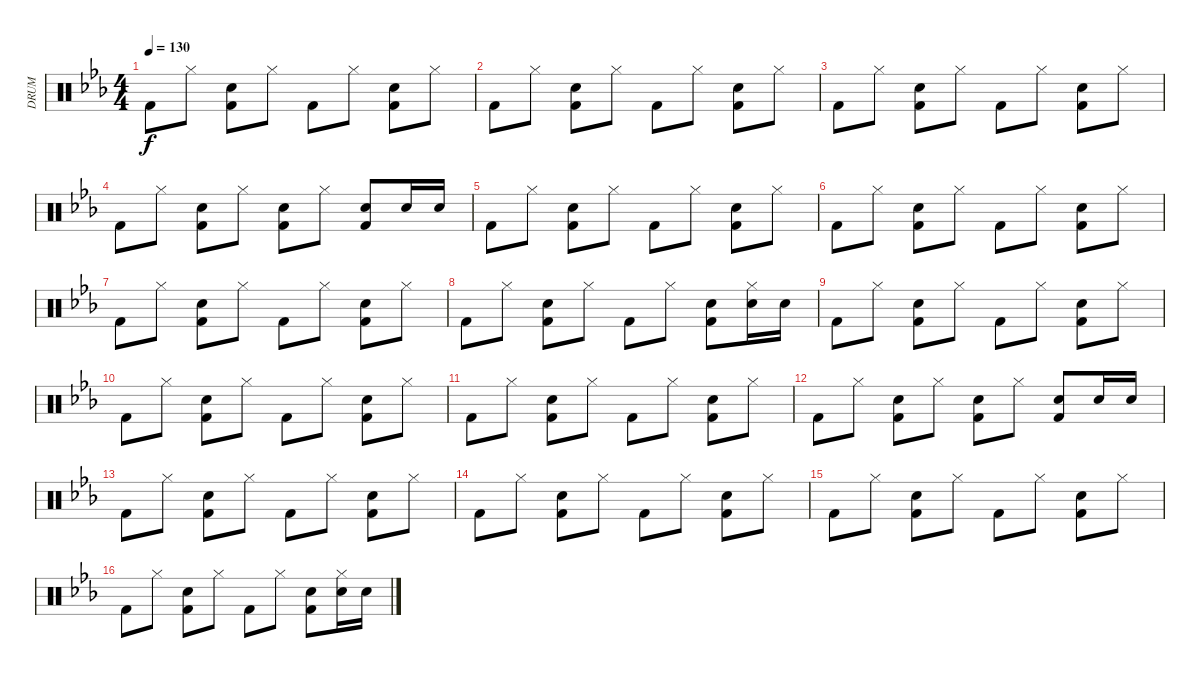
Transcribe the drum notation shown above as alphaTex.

\track ("DRUM" "DRUM") {instrument percussion}
\staff {score}
\articulation defaults
\ts (4 4)
\tempo 130
\clef neutral
\ks eb "Kick (hit) 2".8{dy f} "Hi-Hat (closed)".8
("Hand Clap (hit)" "Kick (hit) 2").8 "Hi-Hat (closed)".8 "Kick (hit) 2".8 "Hi-Hat (closed)".8 ("Hand Clap (hit)" "Kick (hit) 2").8 "Hi-Hat (closed)".8 |
"Kick (hit) 2".8 "Hi-Hat (closed)".8 ("Hand Clap (hit)" "Kick (hit) 2").8 "Hi-Hat (closed)".8 "Kick (hit) 2".8 "Hi-Hat (closed)".8 ("Hand Clap (hit)" "Kick (hit) 2").8 "Hi-Hat (closed)".8 |
"Kick (hit) 2".8 "Hi-Hat (closed)".8 ("Hand Clap (hit)" "Kick (hit) 2").8 "Hi-Hat (closed)".8 "Kick (hit) 2".8 "Hi-Hat (closed)".8 ("Hand Clap (hit)" "Kick (hit) 2").8 "Hi-Hat (closed)".8 |
"Kick (hit) 2".8 "Hi-Hat (closed)".8 ("Hand Clap (hit)" "Kick (hit) 2").8 "Hi-Hat (closed)".8 ("Hand Clap (hit)" "Kick (hit) 2").8 "Hi-Hat (closed)".8 ("Hand Clap (hit)" "Kick (hit) 2").8 "Hand Clap (hit)".16 "Hand Clap (hit)".16 |
"Kick (hit) 2".8 "Hi-Hat (closed)".8 ("Hand Clap (hit)" "Kick (hit) 2").8 "Hi-Hat (closed)".8 "Kick (hit) 2".8 "Hi-Hat (closed)".8 ("Hand Clap (hit)" "Kick (hit) 2").8 "Hi-Hat (closed)".8 |
"Kick (hit) 2".8 "Hi-Hat (closed)".8 ("Hand Clap (hit)" "Kick (hit) 2").8 "Hi-Hat (closed)".8 "Kick (hit) 2".8 "Hi-Hat (closed)".8 ("Hand Clap (hit)" "Kick (hit) 2").8 "Hi-Hat (closed)".8 |
"Kick (hit) 2".8 "Hi-Hat (closed)".8 ("Hand Clap (hit)" "Kick (hit) 2").8 "Hi-Hat (closed)".8 "Kick (hit) 2".8 "Hi-Hat (closed)".8 ("Hand Clap (hit)" "Kick (hit) 2").8 "Hi-Hat (closed)".8 |
"Kick (hit) 2".8 "Hi-Hat (closed)".8 ("Hand Clap (hit)" "Kick (hit) 2").8 "Hi-Hat (closed)".8 "Kick (hit) 2".8 "Hi-Hat (closed)".8 ("Hand Clap (hit)" "Kick (hit) 2").8 ("Hi-Hat (closed)" "Hand Clap (hit)").16 "Hand Clap (hit)".16 |
"Kick (hit) 2".8 "Hi-Hat (closed)".8 ("Hand Clap (hit)" "Kick (hit) 2").8 "Hi-Hat (closed)".8 "Kick (hit) 2".8 "Hi-Hat (closed)".8 ("Hand Clap (hit)" "Kick (hit) 2").8 "Hi-Hat (closed)".8 |
"Kick (hit) 2".8 "Hi-Hat (closed)".8 ("Hand Clap (hit)" "Kick (hit) 2").8 "Hi-Hat (closed)".8 "Kick (hit) 2".8 "Hi-Hat (closed)".8 ("Hand Clap (hit)" "Kick (hit) 2").8 "Hi-Hat (closed)".8 |
"Kick (hit) 2".8 "Hi-Hat (closed)".8 ("Hand Clap (hit)" "Kick (hit) 2").8 "Hi-Hat (closed)".8 "Kick (hit) 2".8 "Hi-Hat (closed)".8 ("Hand Clap (hit)" "Kick (hit) 2").8 "Hi-Hat (closed)".8 |
"Kick (hit) 2".8 "Hi-Hat (closed)".8 ("Hand Clap (hit)" "Kick (hit) 2").8 "Hi-Hat (closed)".8 ("Hand Clap (hit)" "Kick (hit) 2").8 "Hi-Hat (closed)".8 ("Hand Clap (hit)" "Kick (hit) 2").8 "Hand Clap (hit)".16 "Hand Clap (hit)".16 |
"Kick (hit) 2".8 "Hi-Hat (closed)".8 ("Hand Clap (hit)" "Kick (hit) 2").8 "Hi-Hat (closed)".8 "Kick (hit) 2".8 "Hi-Hat (closed)".8 ("Hand Clap (hit)" "Kick (hit) 2").8 "Hi-Hat (closed)".8 |
"Kick (hit) 2".8 "Hi-Hat (closed)".8 ("Hand Clap (hit)" "Kick (hit) 2").8 "Hi-Hat (closed)".8 "Kick (hit) 2".8 "Hi-Hat (closed)".8 ("Hand Clap (hit)" "Kick (hit) 2").8 "Hi-Hat (closed)".8 |
"Kick (hit) 2".8 "Hi-Hat (closed)".8 ("Hand Clap (hit)" "Kick (hit) 2").8 "Hi-Hat (closed)".8 "Kick (hit) 2".8 "Hi-Hat (closed)".8 ("Hand Clap (hit)" "Kick (hit) 2").8 "Hi-Hat (closed)".8 |
"Kick (hit) 2".8 "Hi-Hat (closed)".8 ("Hand Clap (hit)" "Kick (hit) 2").8 "Hi-Hat (closed)".8 "Kick (hit) 2".8 "Hi-Hat (closed)".8 ("Hand Clap (hit)" "Kick (hit) 2").8 ("Hi-Hat (closed)" "Hand Clap (hit)").16 "Hand Clap (hit)".16
